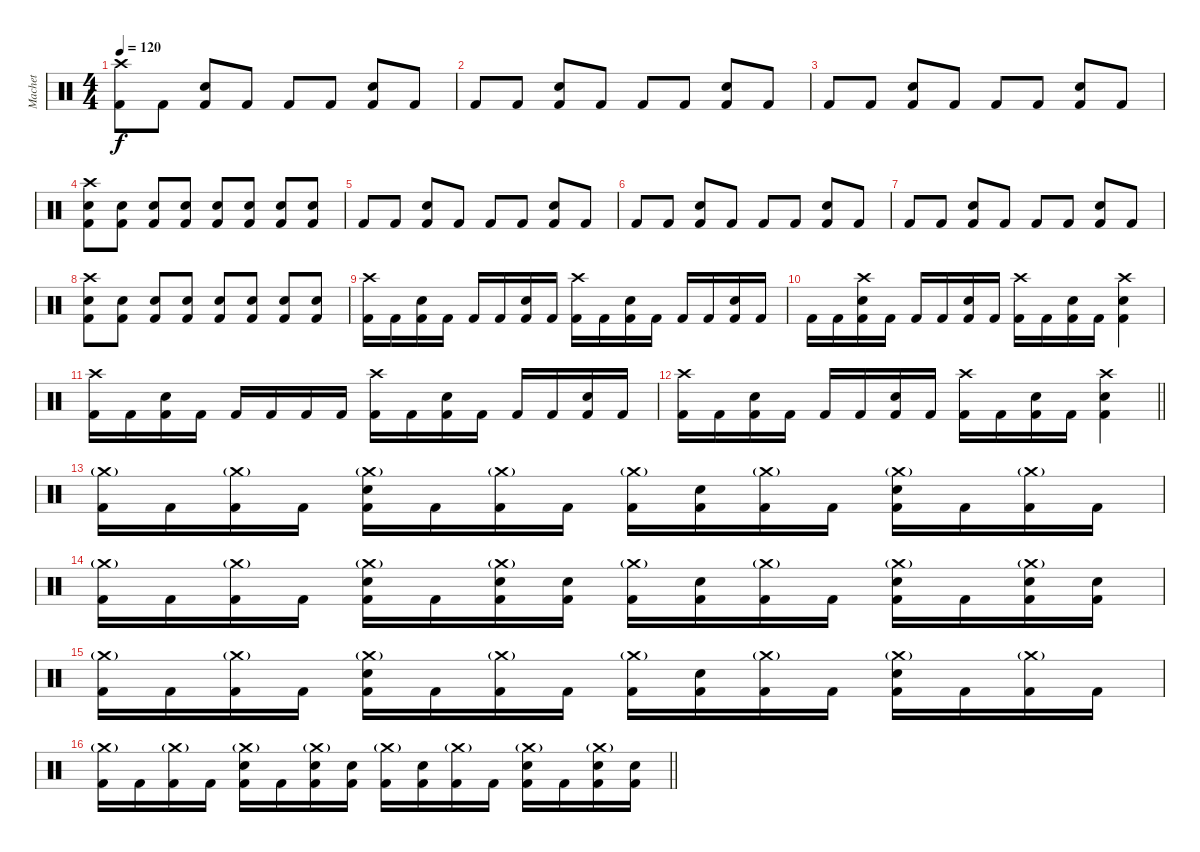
\track ("Machet" "Machet") {instrument percussion}
\staff {score}
\articulation defaults
\ts (4 4)
\tempo 120
\clef neutral
\ks c
("Crash high (hit)" "Kick (hit) 2").8{dy f} "Kick (hit) 2".8 ("Snare (hit) 2" "Kick (hit) 2").8 "Kick (hit) 2".8 "Kick (hit) 2".8 "Kick (hit) 2".8 ("Snare (hit) 2" "Kick (hit) 2").8 "Kick (hit) 2".8 |
"Kick (hit) 2".8 "Kick (hit) 2".8 ("Snare (hit) 2" "Kick (hit) 2").8 "Kick (hit) 2".8 "Kick (hit) 2".8 "Kick (hit) 2".8 ("Snare (hit) 2" "Kick (hit) 2").8 "Kick (hit) 2".8 |
"Kick (hit) 2".8 "Kick (hit) 2".8 ("Snare (hit) 2" "Kick (hit) 2").8 "Kick (hit) 2".8 "Kick (hit) 2".8 "Kick (hit) 2".8 ("Snare (hit) 2" "Kick (hit) 2").8 "Kick (hit) 2".8 |
("Crash high (hit)" "Snare (hit) 2" "Kick (hit) 2").8 ("Snare (hit) 2" "Kick (hit) 2").8 ("Snare (hit) 2" "Kick (hit) 2").8 ("Snare (hit) 2" "Kick (hit) 2").8 ("Snare (hit) 2" "Kick (hit) 2").8 ("Snare (hit) 2" "Kick (hit) 2").8 ("Snare (hit) 2" "Kick (hit) 2").8 ("Snare (hit) 2" "Kick (hit) 2").8 |
"Kick (hit) 2".8 "Kick (hit) 2".8 ("Snare (hit) 2" "Kick (hit) 2").8 "Kick (hit) 2".8 "Kick (hit) 2".8 "Kick (hit) 2".8 ("Snare (hit) 2" "Kick (hit) 2").8 "Kick (hit) 2".8 |
"Kick (hit) 2".8 "Kick (hit) 2".8 ("Snare (hit) 2" "Kick (hit) 2").8 "Kick (hit) 2".8 "Kick (hit) 2".8 "Kick (hit) 2".8 ("Snare (hit) 2" "Kick (hit) 2").8 "Kick (hit) 2".8 |
"Kick (hit) 2".8 "Kick (hit) 2".8 ("Snare (hit) 2" "Kick (hit) 2").8 "Kick (hit) 2".8 "Kick (hit) 2".8 "Kick (hit) 2".8 ("Snare (hit) 2" "Kick (hit) 2").8 "Kick (hit) 2".8 |
("Crash high (hit)" "Snare (hit) 2" "Kick (hit) 2").8 ("Snare (hit) 2" "Kick (hit) 2").8 ("Snare (hit) 2" "Kick (hit) 2").8 ("Snare (hit) 2" "Kick (hit) 2").8 ("Snare (hit) 2" "Kick (hit) 2").8 ("Snare (hit) 2" "Kick (hit) 2").8 ("Snare (hit) 2" "Kick (hit) 2").8 ("Snare (hit) 2" "Kick (hit) 2").8 |
("Crash high (hit)" "Kick (hit) 2").16 "Kick (hit) 2".16 ("Snare (hit) 2" "Kick (hit) 2").16 "Kick (hit) 2".16 "Kick (hit) 2".16 "Kick (hit) 2".16 ("Snare (hit) 2" "Kick (hit) 2").16 "Kick (hit) 2".16 ("Crash high (hit)" "Kick (hit) 2").16 "Kick (hit) 2".16 ("Snare (hit) 2" "Kick (hit) 2").16 "Kick (hit) 2".16 "Kick (hit) 2".16 "Kick (hit) 2".16 ("Snare (hit) 2" "Kick (hit) 2").16 "Kick (hit) 2".16 |
"Kick (hit) 2".16 "Kick (hit) 2".16 ("Crash high (hit)" "Snare (hit) 2" "Kick (hit) 2").16 "Kick (hit) 2".16 "Kick (hit) 2".16 "Kick (hit) 2".16 ("Snare (hit) 2" "Kick (hit) 2").16 "Kick (hit) 2".16 ("Crash high (hit)" "Kick (hit) 2").16 "Kick (hit) 2".16 ("Snare (hit) 2" "Kick (hit) 2").16 "Kick (hit) 2".16 ("Crash high (hit)" "Snare (hit) 2" "Kick (hit) 2").4 |
("Crash high (hit)" "Kick (hit) 2").16 "Kick (hit) 2".16 ("Snare (hit) 2" "Kick (hit) 2").16 "Kick (hit) 2".16 "Kick (hit) 2".16 "Kick (hit) 2".16 "Kick (hit) 2".16 "Kick (hit) 2".16 ("Crash high (hit)" "Kick (hit) 2").16 "Kick (hit) 2".16 ("Snare (hit) 2" "Kick (hit) 2").16 "Kick (hit) 2".16 "Kick (hit) 2".16 "Kick (hit) 2".16 ("Snare (hit) 2" "Kick (hit) 2").16 "Kick (hit) 2".16 |
\barLineRight lightlight
("Crash high (hit)" "Kick (hit) 2").16 "Kick (hit) 2".16 ("Snare (hit) 2" "Kick (hit) 2").16 "Kick (hit) 2".16 "Kick (hit) 2".16 "Kick (hit) 2".16 ("Snare (hit) 2" "Kick (hit) 2").16 "Kick (hit) 2".16 ("Crash high (hit)" "Kick (hit) 2").16 "Kick (hit) 2".16 ("Snare (hit) 2" "Kick (hit) 2").16 "Kick (hit) 2".16 ("Crash high (hit)" "Snare (hit) 2" "Kick (hit) 2").4 |
("Crash medium (hit)"{g} "Kick (hit) 2").16 "Kick (hit) 2".16 ("Crash medium (hit)"{g} "Kick (hit) 2").16 "Kick (hit) 2".16 ("Crash medium (hit)"{g} "Snare (hit) 2" "Kick (hit) 2").16 "Kick (hit) 2".16 ("Crash medium (hit)"{g} "Kick (hit) 2").16 "Kick (hit) 2".16 ("Crash medium (hit)"{g} "Kick (hit) 2").16 ("Snare (hit) 2" "Kick (hit) 2").16 ("Crash medium (hit)"{g} "Kick (hit) 2").16 "Kick (hit) 2".16 ("Crash medium (hit)"{g} "Snare (hit) 2" "Kick (hit) 2").16 "Kick (hit) 2".16 ("Crash medium (hit)"{g} "Kick (hit) 2").16 "Kick (hit) 2".16 |
("Crash medium (hit)"{g} "Kick (hit) 2").16 "Kick (hit) 2".16 ("Crash medium (hit)"{g} "Kick (hit) 2").16 "Kick (hit) 2".16 ("Crash medium (hit)"{g} "Snare (hit) 2" "Kick (hit) 2").16 "Kick (hit) 2".16 ("Crash medium (hit)"{g} "Snare (hit) 2" "Kick (hit) 2").16 ("Snare (hit) 2" "Kick (hit) 2").16 ("Crash medium (hit)"{g} "Kick (hit) 2").16 ("Snare (hit) 2" "Kick (hit) 2").16 ("Crash medium (hit)"{g} "Kick (hit) 2").16 "Kick (hit) 2".16 ("Crash medium (hit)"{g} "Snare (hit) 2" "Kick (hit) 2").16 "Kick (hit) 2".16 ("Crash medium (hit)"{g} "Snare (hit) 2" "Kick (hit) 2").16 ("Snare (hit) 2" "Kick (hit) 2").16 |
("Crash medium (hit)"{g} "Kick (hit) 2").16 "Kick (hit) 2".16 ("Crash medium (hit)"{g} "Kick (hit) 2").16 "Kick (hit) 2".16 ("Crash medium (hit)"{g} "Snare (hit) 2" "Kick (hit) 2").16 "Kick (hit) 2".16 ("Crash medium (hit)"{g} "Kick (hit) 2").16 "Kick (hit) 2".16 ("Crash medium (hit)"{g} "Kick (hit) 2").16 ("Snare (hit) 2" "Kick (hit) 2").16 ("Crash medium (hit)"{g} "Kick (hit) 2").16 "Kick (hit) 2".16 ("Crash medium (hit)"{g} "Snare (hit) 2" "Kick (hit) 2").16 "Kick (hit) 2".16 ("Crash medium (hit)"{g} "Kick (hit) 2").16 "Kick (hit) 2".16 |
\barLineRight lightlight
("Crash medium (hit)"{g} "Kick (hit) 2").16 "Kick (hit) 2".16 ("Crash medium (hit)"{g} "Kick (hit) 2").16 "Kick (hit) 2".16 ("Crash medium (hit)"{g} "Snare (hit) 2" "Kick (hit) 2").16 "Kick (hit) 2".16 ("Crash medium (hit)"{g} "Snare (hit) 2" "Kick (hit) 2").16 ("Snare (hit) 2" "Kick (hit) 2").16 ("Crash medium (hit)"{g} "Kick (hit) 2").16 ("Snare (hit) 2" "Kick (hit) 2").16 ("Crash medium (hit)"{g} "Kick (hit) 2").16 "Kick (hit) 2".16 ("Crash medium (hit)"{g} "Snare (hit) 2" "Kick (hit) 2").16 "Kick (hit) 2".16 ("Crash medium (hit)"{g} "Snare (hit) 2" "Kick (hit) 2").16 ("Snare (hit) 2" "Kick (hit) 2").16
